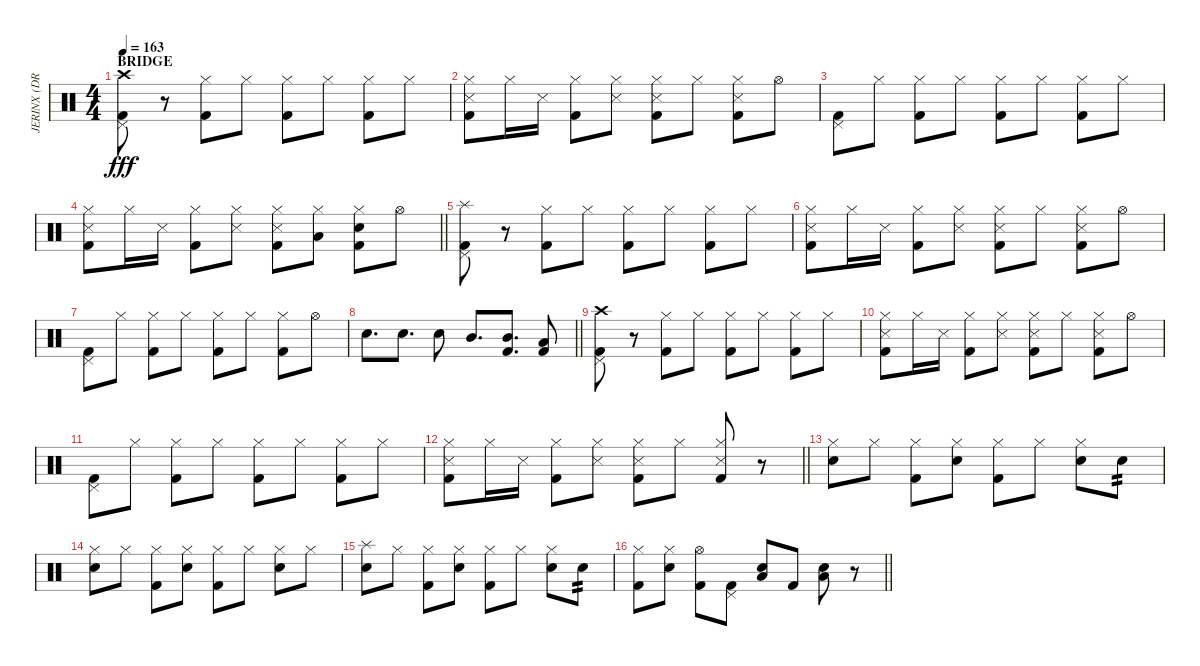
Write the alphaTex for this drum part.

\track ("JERINX (DRUM)" "JERINX (DR") {instrument percussion}
\staff {score}
\articulation defaults
\ts (4 4)
\section ("" "BRIDGE")
\tempo 163
\clef neutral
\ks c
("Pedal Hi-Hat (hit)" "Kick (hit) 2" "Crash high (hit)").8{dy fff} r.8 ("Hi-Hat (closed)" "Kick (hit) 2").8 "Hi-Hat (closed)".8 ("Hi-Hat (closed)" "Kick (hit) 2").8 "Hi-Hat (closed)".8 ("Hi-Hat (closed)" "Kick (hit) 2").8 "Hi-Hat (closed)".8 |
("Hi-Hat (closed)" "Snare (side stick) 3" "Kick (hit) 2").8 "Hi-Hat (closed)".16 "Snare (side stick) 3".16 ("Hi-Hat (closed)" "Kick (hit) 2").8 ("Hi-Hat (closed)" "Snare (side stick) 3").8 ("Hi-Hat (closed)" "Snare (side stick) 3" "Kick (hit) 2").8 "Hi-Hat (closed)".8 ("Hi-Hat (closed)" "Snare (side stick) 3" "Kick (hit) 2").8 "Hi-Hat (open)".8 |
("Pedal Hi-Hat (hit)" "Kick (hit) 2").8 "Hi-Hat (closed)".8 ("Hi-Hat (closed)" "Kick (hit) 2").8 "Hi-Hat (closed)".8 ("Hi-Hat (closed)" "Kick (hit) 2").8 "Hi-Hat (closed)".8 ("Hi-Hat (closed)" "Kick (hit) 2").8 "Hi-Hat (closed)".8 |
\barLineRight lightlight
("Hi-Hat (closed)" "Snare (side stick) 3" "Kick (hit) 2").8 "Hi-Hat (closed)".16 "Snare (side stick) 3".16 ("Hi-Hat (closed)" "Kick (hit) 2").8 ("Hi-Hat (closed)" "Snare (side stick) 3").8 ("Hi-Hat (closed)" "Snare (side stick) 3" "Kick (hit) 2").8 ("Hi-Hat (closed)" "Low Tom (hit)").8 ("Hi-Hat (closed)" "Snare (hit) 2" "Kick (hit) 2").8 "Hi-Hat (open)".8 |
("Pedal Hi-Hat (hit)" "Kick (hit) 2" "Splash (hit)").8 r.8 ("Hi-Hat (closed)" "Kick (hit) 2").8 "Hi-Hat (closed)".8 ("Hi-Hat (closed)" "Kick (hit) 2").8 "Hi-Hat (closed)".8 ("Hi-Hat (closed)" "Kick (hit) 2").8 "Hi-Hat (closed)".8 |
("Hi-Hat (closed)" "Snare (side stick) 3" "Kick (hit) 2").8 "Hi-Hat (closed)".16 "Snare (side stick) 3".16 ("Hi-Hat (closed)" "Kick (hit) 2").8 ("Hi-Hat (closed)" "Snare (side stick) 3").8 ("Hi-Hat (closed)" "Snare (side stick) 3" "Kick (hit) 2").8 "Hi-Hat (closed)".8 ("Hi-Hat (closed)" "Snare (side stick) 3" "Kick (hit) 2").8 "Hi-Hat (open)".8 |
("Pedal Hi-Hat (hit)" "Kick (hit) 2").8 "Hi-Hat (closed)".8 ("Hi-Hat (closed)" "Kick (hit) 2").8 "Hi-Hat (closed)".8 ("Hi-Hat (closed)" "Kick (hit) 2").8 "Hi-Hat (closed)".8 ("Hi-Hat (closed)" "Kick (hit) 2").8 "Hi-Hat (open)".8 |
\barLineRight lightlight "Snare (hit) 2".8{d} "Snare (hit) 2".8{d} "Snare (hit) 2".8 "Mid Tom (hit)".8{d}
("Kick (hit) 2" "Mid Tom (hit)").8{d} ("Kick (hit) 2" "Low Tom (hit)").8 |
("Pedal Hi-Hat (hit)" "Kick (hit) 2" "Crash high (hit)").8 r.8 ("Hi-Hat (closed)" "Kick (hit) 2").8 "Hi-Hat (closed)".8 ("Hi-Hat (closed)" "Kick (hit) 2").8 "Hi-Hat (closed)".8 ("Hi-Hat (closed)" "Kick (hit) 2").8 "Hi-Hat (closed)".8 |
("Hi-Hat (closed)" "Snare (side stick) 3" "Kick (hit) 2").8 "Hi-Hat (closed)".16 "Snare (side stick) 3".16 ("Hi-Hat (closed)" "Kick (hit) 2").8 ("Hi-Hat (closed)" "Snare (side stick) 3").8 ("Hi-Hat (closed)" "Snare (side stick) 3" "Kick (hit) 2").8 "Hi-Hat (closed)".8 ("Hi-Hat (closed)" "Snare (side stick) 3" "Kick (hit) 2").8 "Hi-Hat (open)".8 |
("Pedal Hi-Hat (hit)" "Kick (hit) 2").8 "Hi-Hat (closed)".8 ("Hi-Hat (closed)" "Kick (hit) 2").8 "Hi-Hat (closed)".8 ("Hi-Hat (closed)" "Kick (hit) 2").8 "Hi-Hat (closed)".8 ("Hi-Hat (closed)" "Kick (hit) 2").8 "Hi-Hat (closed)".8 |
\barLineRight lightlight
("Hi-Hat (closed)" "Snare (side stick) 3" "Kick (hit) 2").8 "Hi-Hat (closed)".16 "Snare (side stick) 3".16 ("Hi-Hat (closed)" "Kick (hit) 2").8 ("Hi-Hat (closed)" "Snare (side stick) 3").8 ("Hi-Hat (closed)" "Snare (side stick) 3" "Kick (hit) 2").8 "Hi-Hat (closed)".8 ("Hi-Hat (closed)" "Snare (side stick) 3" "Kick (hit) 2").8 r.8 |
("Hi-Hat (closed)" "Snare (hit) 2").8 "Hi-Hat (closed)".8 ("Hi-Hat (closed)" "Kick (hit) 2").8 ("Hi-Hat (closed)" "Snare (hit) 2").8 ("Hi-Hat (closed)" "Kick (hit) 2").8 "Hi-Hat (closed)".8 ("Hi-Hat (closed)" "Snare (hit) 2").8 "Snare (hit) 2".8{tp 2} |
("Hi-Hat (closed)" "Snare (hit) 2").8 "Hi-Hat (closed)".8 ("Hi-Hat (closed)" "Kick (hit) 2").8 ("Hi-Hat (closed)" "Snare (hit) 2").8 ("Hi-Hat (closed)" "Kick (hit) 2").8 "Hi-Hat (closed)".8 ("Hi-Hat (closed)" "Snare (hit) 2").8 "Hi-Hat (closed)".8 |
("Snare (hit) 2" "Splash (hit)").8 "Hi-Hat (closed)".8 ("Hi-Hat (closed)" "Kick (hit) 2").8 ("Hi-Hat (closed)" "Snare (hit) 2").8 ("Hi-Hat (closed)" "Kick (hit) 2").8 "Hi-Hat (closed)".8 ("Hi-Hat (closed)" "Snare (hit) 2").8 "Snare (hit) 2".8{tp 2} |
\barLineRight lightlight
("Hi-Hat (closed)" "Kick (hit) 2").8 ("Hi-Hat (closed)" "Snare (hit) 2").8 ("Hi-Hat (open)" "Kick (hit) 2").8 ("Pedal Hi-Hat (hit)" "Kick (hit) 2").8 ("Snare (hit) 2" "Low Floor Tom (hit)").8 "Kick (hit) 2".8 ("Snare (hit) 2" "Low Floor Tom (hit)").8 r.8
